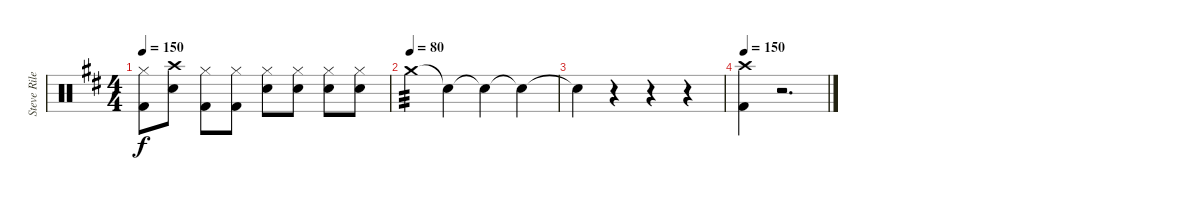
\track ("Steve Riley" "Steve Rile") {instrument percussion}
\staff {score}
\articulation defaults
\ts (4 4)
\tempo 150
\clef neutral
\ks d
("Hi-Hat (closed)" "Kick (hit) 2").8{dy f} ("Crash high (hit)" "Electric Snare (hit)").8 ("Hi-Hat (closed)" "Kick (hit) 2").8 ("Hi-Hat (closed)" "Kick (hit) 2").8 ("Hi-Hat (closed)" "Electric Snare (hit)").8 ("Hi-Hat (closed)" "Electric Snare (hit)").8 ("Hi-Hat (closed)" "Electric Snare (hit)").8 ("Hi-Hat (closed)" "Electric Snare (hit)").8 |
\tempo (80)
"Crash medium (hit)".4{tp 3} "Snare (hit)"{t}.4 "Snare (hit)"{t}.4 "Snare (hit)"{t}.4 |
"Snare (hit)"{t}.4 r.4 r.4 r.4 |
\tempo 150
("Crash high (hit)" "Kick (hit) 2").4 r.2{d}
